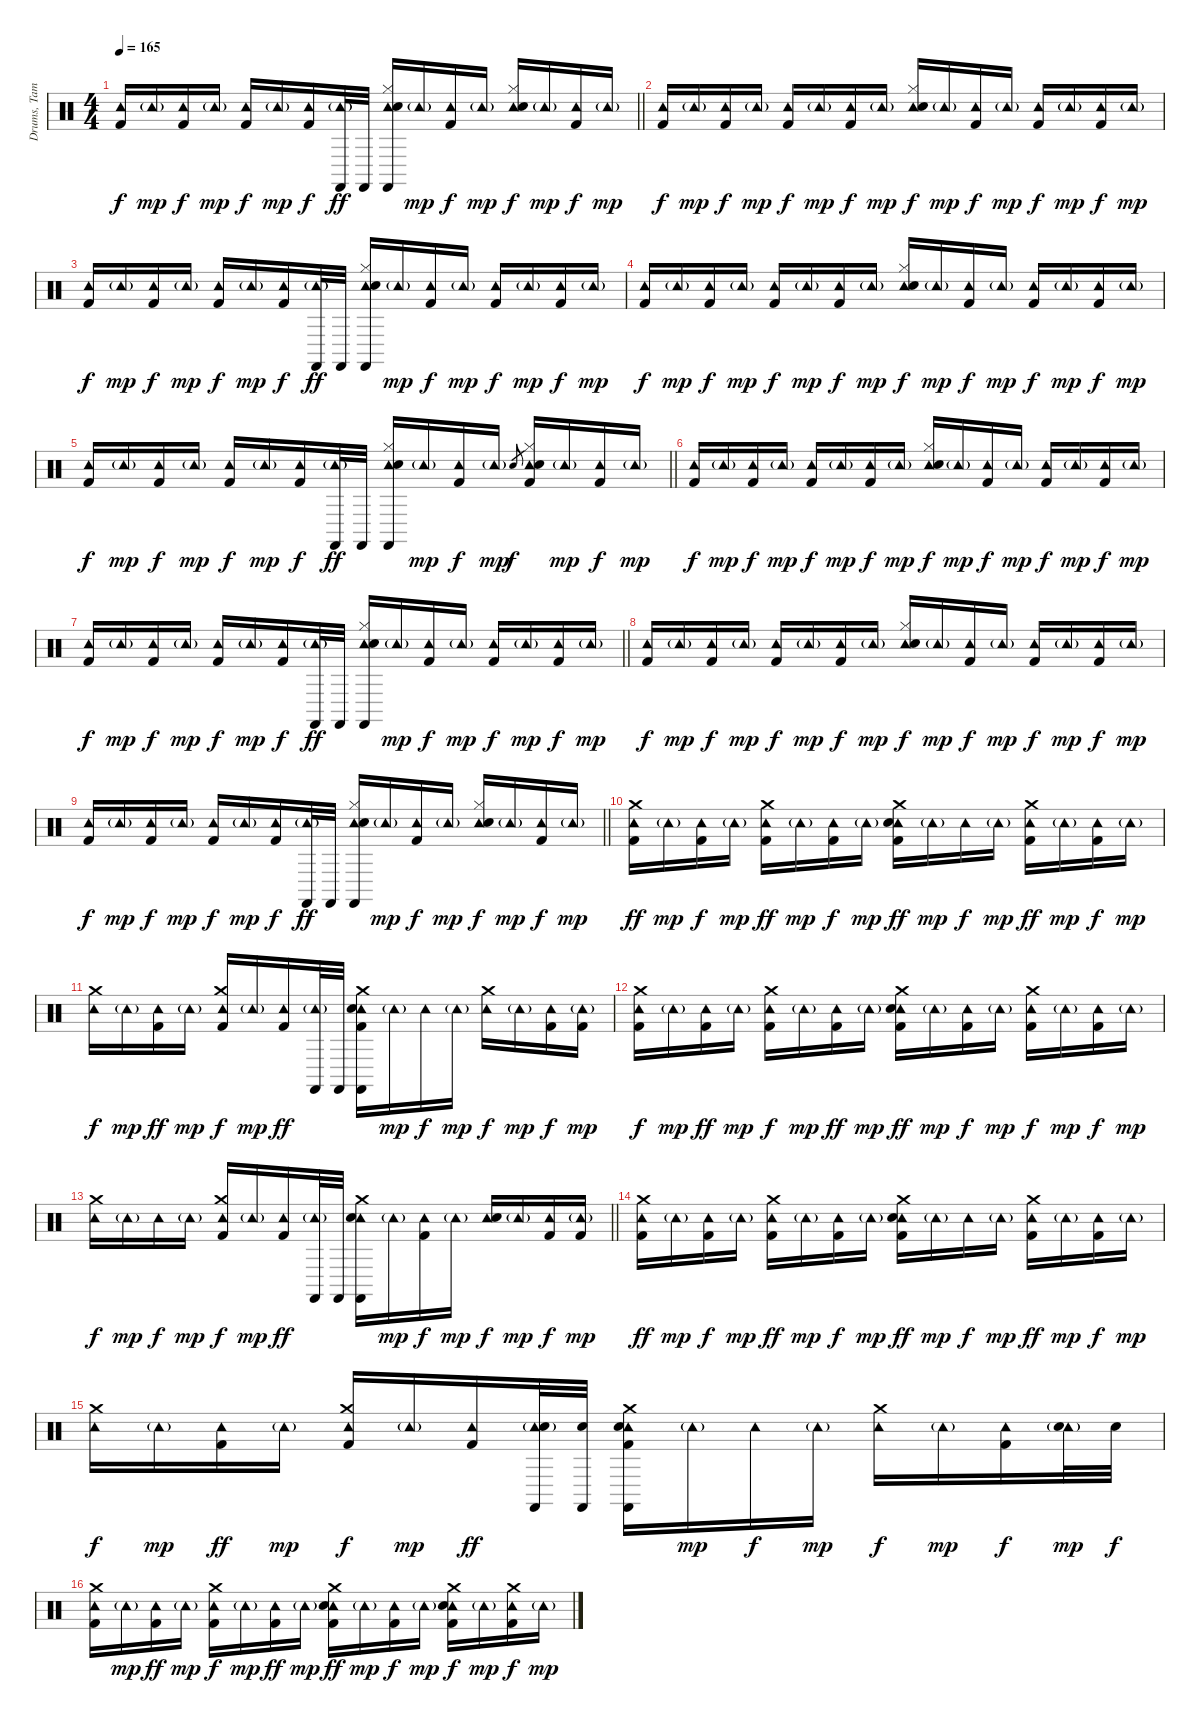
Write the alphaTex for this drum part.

\track ("Drums, Tambourine, Castinets" "Drums, Tam") {instrument percussion}
\staff {score}
\articulation defaults
\ts (4 4)
\tempo 165
\clef neutral
\barLineRight lightlight
\ks c
("Tambourine (hit)" "Kick (hit) 2").16{dy f} "Tambourine (hit)"{g}.16{dy mp} ("Tambourine (hit)" "Kick (hit) 2").16{dy f} "Tambourine (hit)"{g}.16{dy mp} ("Tambourine (hit)" "Kick (hit) 2").16{dy f} "Tambourine (hit)"{g}.16{dy mp} ("Tambourine (hit)" "Kick (hit) 2").16{dy f} ("Tambourine (hit)"{g} "Castanets (hit)").32{dy ff} "Castanets (hit)".32 ("Tambourine (hit)" "Hi-Hat (closed)" "Snare (hit) 2" "Castanets (hit)").16 "Tambourine (hit)"{g}.16{dy mp} ("Tambourine (hit)" "Kick (hit) 2").16{dy f} "Tambourine (hit)"{g}.16{dy mp} ("Tambourine (hit)" "Hi-Hat (closed)" "Snare (hit) 2").16{dy f} "Tambourine (hit)"{g}.16{dy mp} ("Tambourine (hit)" "Kick (hit) 2").16{dy f} "Tambourine (hit)"{g}.16{dy mp} |
("Tambourine (hit)" "Kick (hit) 2").16{dy f} "Tambourine (hit)"{g}.16{dy mp} ("Tambourine (hit)" "Kick (hit) 2").16{dy f} "Tambourine (hit)"{g}.16{dy mp} ("Tambourine (hit)" "Kick (hit) 2").16{dy f} "Tambourine (hit)"{g}.16{dy mp} ("Tambourine (hit)" "Kick (hit) 2").16{dy f} "Tambourine (hit)"{g}.16{dy mp} ("Tambourine (hit)" "Hi-Hat (closed)" "Snare (hit) 2").16{dy f} "Tambourine (hit)"{g}.16{dy mp} ("Tambourine (hit)" "Kick (hit) 2").16{dy f} "Tambourine (hit)"{g}.16{dy mp} ("Tambourine (hit)" "Kick (hit) 2").16{dy f} "Tambourine (hit)"{g}.16{dy mp} ("Tambourine (hit)" "Kick (hit) 2").16{dy f} "Tambourine (hit)"{g}.16{dy mp} |
("Tambourine (hit)" "Kick (hit) 2").16{dy f} "Tambourine (hit)"{g}.16{dy mp} ("Tambourine (hit)" "Kick (hit) 2").16{dy f} "Tambourine (hit)"{g}.16{dy mp} ("Tambourine (hit)" "Kick (hit) 2").16{dy f} "Tambourine (hit)"{g}.16{dy mp} ("Tambourine (hit)" "Kick (hit) 2").16{dy f} ("Tambourine (hit)"{g} "Castanets (hit)").32{dy ff} "Castanets (hit)".32 ("Tambourine (hit)" "Hi-Hat (closed)" "Snare (hit) 2" "Castanets (hit)").16 "Tambourine (hit)"{g}.16{dy mp} ("Tambourine (hit)" "Kick (hit) 2").16{dy f} "Tambourine (hit)"{g}.16{dy mp} ("Tambourine (hit)" "Kick (hit) 2").16{dy f} "Tambourine (hit)"{g}.16{dy mp} ("Tambourine (hit)" "Kick (hit) 2").16{dy f} "Tambourine (hit)"{g}.16{dy mp} |
("Tambourine (hit)" "Kick (hit) 2").16{dy f} "Tambourine (hit)"{g}.16{dy mp} ("Tambourine (hit)" "Kick (hit) 2").16{dy f} "Tambourine (hit)"{g}.16{dy mp} ("Tambourine (hit)" "Kick (hit) 2").16{dy f} "Tambourine (hit)"{g}.16{dy mp} ("Tambourine (hit)" "Kick (hit) 2").16{dy f} "Tambourine (hit)"{g}.16{dy mp} ("Tambourine (hit)" "Hi-Hat (closed)" "Snare (hit) 2").16{dy f} "Tambourine (hit)"{g}.16{dy mp} ("Tambourine (hit)" "Kick (hit) 2").16{dy f} "Tambourine (hit)"{g}.16{dy mp} ("Tambourine (hit)" "Kick (hit) 2").16{dy f} "Tambourine (hit)"{g}.16{dy mp} ("Tambourine (hit)" "Kick (hit) 2").16{dy f} "Tambourine (hit)"{g}.16{dy mp} |
\barLineRight lightlight
("Tambourine (hit)" "Kick (hit) 2").16{dy f} "Tambourine (hit)"{g}.16{dy mp} ("Tambourine (hit)" "Kick (hit) 2").16{dy f} "Tambourine (hit)"{g}.16{dy mp} ("Tambourine (hit)" "Kick (hit) 2").16{dy f} "Tambourine (hit)"{g}.16{dy mp} ("Tambourine (hit)" "Kick (hit) 2").16{dy f} ("Tambourine (hit)"{g} "Castanets (hit)").32{dy ff} "Castanets (hit)".32 ("Tambourine (hit)" "Hi-Hat (closed)" "Snare (hit) 2" "Castanets (hit)").16 "Tambourine (hit)"{g}.16{dy mp} ("Tambourine (hit)" "Kick (hit) 2").16{dy f} "Tambourine (hit)"{g}.16{dy mp} "Snare (hit) 2".8{gr dy f} ("Tambourine (hit)" "Hi-Hat (closed)" "Snare (hit) 2" "Kick (hit) 2").16 "Tambourine (hit)"{g}.16{dy mp} ("Tambourine (hit)" "Kick (hit) 2").16{dy f} "Tambourine (hit)"{g}.16{dy mp} |
("Tambourine (hit)" "Kick (hit) 2").16{dy f} "Tambourine (hit)"{g}.16{dy mp} ("Tambourine (hit)" "Kick (hit) 2").16{dy f} "Tambourine (hit)"{g}.16{dy mp} ("Tambourine (hit)" "Kick (hit) 2").16{dy f} "Tambourine (hit)"{g}.16{dy mp} ("Tambourine (hit)" "Kick (hit) 2").16{dy f} "Tambourine (hit)"{g}.16{dy mp} ("Tambourine (hit)" "Hi-Hat (closed)" "Snare (hit) 2").16{dy f} "Tambourine (hit)"{g}.16{dy mp} ("Tambourine (hit)" "Kick (hit) 2").16{dy f} "Tambourine (hit)"{g}.16{dy mp} ("Tambourine (hit)" "Kick (hit) 2").16{dy f} "Tambourine (hit)"{g}.16{dy mp} ("Tambourine (hit)" "Kick (hit) 2").16{dy f} "Tambourine (hit)"{g}.16{dy mp} |
\barLineRight lightlight
("Tambourine (hit)" "Kick (hit) 2").16{dy f} "Tambourine (hit)"{g}.16{dy mp} ("Tambourine (hit)" "Kick (hit) 2").16{dy f} "Tambourine (hit)"{g}.16{dy mp} ("Tambourine (hit)" "Kick (hit) 2").16{dy f} "Tambourine (hit)"{g}.16{dy mp} ("Tambourine (hit)" "Kick (hit) 2").16{dy f} ("Tambourine (hit)"{g} "Castanets (hit)").32{dy ff} "Castanets (hit)".32 ("Tambourine (hit)" "Hi-Hat (closed)" "Snare (hit) 2" "Castanets (hit)").16 "Tambourine (hit)"{g}.16{dy mp} ("Tambourine (hit)" "Kick (hit) 2").16{dy f} "Tambourine (hit)"{g}.16{dy mp} ("Tambourine (hit)" "Kick (hit) 2").16{dy f} "Tambourine (hit)"{g}.16{dy mp} ("Tambourine (hit)" "Kick (hit) 2").16{dy f} "Tambourine (hit)"{g}.16{dy mp} |
("Tambourine (hit)" "Kick (hit) 2").16{dy f} "Tambourine (hit)"{g}.16{dy mp} ("Tambourine (hit)" "Kick (hit) 2").16{dy f} "Tambourine (hit)"{g}.16{dy mp} ("Tambourine (hit)" "Kick (hit) 2").16{dy f} "Tambourine (hit)"{g}.16{dy mp} ("Tambourine (hit)" "Kick (hit) 2").16{dy f} "Tambourine (hit)"{g}.16{dy mp} ("Tambourine (hit)" "Hi-Hat (closed)" "Snare (hit) 2").16{dy f} "Tambourine (hit)"{g}.16{dy mp} ("Tambourine (hit)" "Kick (hit) 2").16{dy f} "Tambourine (hit)"{g}.16{dy mp} ("Tambourine (hit)" "Kick (hit) 2").16{dy f} "Tambourine (hit)"{g}.16{dy mp} ("Tambourine (hit)" "Kick (hit) 2").16{dy f} "Tambourine (hit)"{g}.16{dy mp} |
\barLineRight lightlight
("Tambourine (hit)" "Kick (hit) 2").16{dy f} "Tambourine (hit)"{g}.16{dy mp} ("Tambourine (hit)" "Kick (hit) 2").16{dy f} "Tambourine (hit)"{g}.16{dy mp} ("Tambourine (hit)" "Kick (hit) 2").16{dy f} "Tambourine (hit)"{g}.16{dy mp} ("Tambourine (hit)" "Kick (hit) 2").16{dy f} ("Tambourine (hit)"{g} "Castanets (hit)").32{dy ff} "Castanets (hit)".32 ("Tambourine (hit)" "Hi-Hat (closed)" "Snare (hit) 2" "Castanets (hit)").16 "Tambourine (hit)"{g}.16{dy mp} ("Tambourine (hit)" "Kick (hit) 2").16{dy f} "Tambourine (hit)"{g}.16{dy mp} ("Tambourine (hit)" "Hi-Hat (closed)" "Snare (hit) 2").16{dy f} "Tambourine (hit)"{g}.16{dy mp} ("Tambourine (hit)" "Kick (hit) 2").16{dy f} "Tambourine (hit)"{g}.16{dy mp} |
("Crash medium (hit)" "Tambourine (hit)" "Kick (hit) 2").16{dy ff} "Tambourine (hit)"{g}.16{dy mp} ("Tambourine (hit)" "Kick (hit) 2").16{dy f} "Tambourine (hit)"{g}.16{dy mp} ("Crash medium (hit)" "Tambourine (hit)" "Kick (hit) 2").16{dy ff} "Tambourine (hit)"{g}.16{dy mp} ("Tambourine (hit)" "Kick (hit) 2").16{dy f} "Tambourine (hit)"{g}.16{dy mp} ("Crash medium (hit)" "Tambourine (hit)" "Snare (hit) 2" "Kick (hit) 2").16{dy ff} "Tambourine (hit)"{g}.16{dy mp} "Tambourine (hit)".16{dy f} "Tambourine (hit)"{g}.16{dy mp} ("Crash medium (hit)" "Tambourine (hit)" "Kick (hit) 2").16{dy ff} "Tambourine (hit)"{g}.16{dy mp} ("Tambourine (hit)" "Kick (hit) 2").16{dy f} "Tambourine (hit)"{g}.16{dy mp} |
("Crash medium (hit)" "Tambourine (hit)").16{dy f} "Tambourine (hit)"{g}.16{dy mp} ("Tambourine (hit)" "Kick (hit) 2").16{dy ff} "Tambourine (hit)"{g}.16{dy mp} ("Crash medium (hit)" "Tambourine (hit)" "Kick (hit) 2").16{dy f} "Tambourine (hit)"{g}.16{dy mp} ("Tambourine (hit)" "Kick (hit) 2").16{dy ff} ("Tambourine (hit)"{g} "Castanets (hit)").32 "Castanets (hit)".32 ("Crash medium (hit)" "Tambourine (hit)" "Snare (hit) 2" "Castanets (hit)" "Kick (hit) 2").16 "Tambourine (hit)"{g}.16{dy mp} "Tambourine (hit)".16{dy f} "Tambourine (hit)"{g}.16{dy mp} ("Crash medium (hit)" "Tambourine (hit)").16{dy f} "Tambourine (hit)"{g}.16{dy mp} ("Tambourine (hit)" "Kick (hit) 2").16{dy f} ("Tambourine (hit)"{g} "Kick (hit) 2").16{dy mp} |
("Crash medium (hit)" "Tambourine (hit)" "Kick (hit) 2").16{dy f} "Tambourine (hit)"{g}.16{dy mp} ("Tambourine (hit)" "Kick (hit) 2").16{dy ff} "Tambourine (hit)"{g}.16{dy mp} ("Crash medium (hit)" "Tambourine (hit)" "Kick (hit) 2").16{dy f} "Tambourine (hit)"{g}.16{dy mp} ("Tambourine (hit)" "Kick (hit) 2").16{dy ff} "Tambourine (hit)"{g}.16{dy mp} ("Crash medium (hit)" "Tambourine (hit)" "Snare (hit) 2" "Kick (hit) 2").16{dy ff} "Tambourine (hit)"{g}.16{dy mp} ("Tambourine (hit)" "Kick (hit) 2").16{dy f} "Tambourine (hit)"{g}.16{dy mp} ("Crash medium (hit)" "Tambourine (hit)" "Kick (hit) 2").16{dy f} "Tambourine (hit)"{g}.16{dy mp} ("Tambourine (hit)" "Kick (hit) 2").16{dy f} "Tambourine (hit)"{g}.16{dy mp} |
\barLineRight lightlight
("Crash medium (hit)" "Tambourine (hit)").16{dy f} "Tambourine (hit)"{g}.16{dy mp} "Tambourine (hit)".16{dy f} "Tambourine (hit)"{g}.16{dy mp} ("Crash medium (hit)" "Tambourine (hit)" "Kick (hit) 2").16{dy f} "Tambourine (hit)"{g}.16{dy mp} ("Tambourine (hit)" "Kick (hit) 2").16{dy ff} ("Tambourine (hit)"{g} "Castanets (hit)").32 "Castanets (hit)".32 ("Crash medium (hit)" "Tambourine (hit)" "Snare (hit) 2" "Castanets (hit)").16 "Tambourine (hit)"{g}.16{dy mp} ("Tambourine (hit)" "Kick (hit) 2").16{dy f} "Tambourine (hit)"{g}.16{dy mp} ("Tambourine (hit)" "Snare (hit) 2").16{dy f} "Tambourine (hit)"{g}.16{dy mp} ("Tambourine (hit)" "Kick (hit) 2").16{dy f} ("Tambourine (hit)"{g} "Kick (hit) 2").16{dy mp} |
("Crash medium (hit)" "Tambourine (hit)" "Kick (hit) 2").16{dy ff} "Tambourine (hit)"{g}.16{dy mp} ("Tambourine (hit)" "Kick (hit) 2").16{dy f} "Tambourine (hit)"{g}.16{dy mp} ("Crash medium (hit)" "Tambourine (hit)" "Kick (hit) 2").16{dy ff} "Tambourine (hit)"{g}.16{dy mp} ("Tambourine (hit)" "Kick (hit) 2").16{dy f} "Tambourine (hit)"{g}.16{dy mp} ("Crash medium (hit)" "Tambourine (hit)" "Snare (hit) 2" "Kick (hit) 2").16{dy ff} "Tambourine (hit)"{g}.16{dy mp} "Tambourine (hit)".16{dy f} "Tambourine (hit)"{g}.16{dy mp} ("Crash medium (hit)" "Tambourine (hit)" "Kick (hit) 2").16{dy ff} "Tambourine (hit)"{g}.16{dy mp} ("Tambourine (hit)" "Kick (hit) 2").16{dy f} "Tambourine (hit)"{g}.16{dy mp} |
("Crash medium (hit)" "Tambourine (hit)").16{dy f} "Tambourine (hit)"{g}.16{dy mp} ("Tambourine (hit)" "Kick (hit) 2").16{dy ff} "Tambourine (hit)"{g}.16{dy mp} ("Crash medium (hit)" "Tambourine (hit)" "Kick (hit) 2").16{dy f} "Tambourine (hit)"{g}.16{dy mp} ("Tambourine (hit)" "Kick (hit) 2").16{dy ff} ("Tambourine (hit)"{g} "Snare (hit) 2" "Castanets (hit)").32 ("Snare (hit) 2" "Castanets (hit)").32 ("Crash medium (hit)" "Tambourine (hit)" "Snare (hit) 2" "Castanets (hit)" "Kick (hit) 2").16 "Tambourine (hit)"{g}.16{dy mp} "Tambourine (hit)".16{dy f} "Tambourine (hit)"{g}.16{dy mp} ("Crash medium (hit)" "Tambourine (hit)").16{dy f} "Tambourine (hit)"{g}.16{dy mp} ("Tambourine (hit)" "Kick (hit) 2").16{dy f} ("Tambourine (hit)"{g} "Snare (hit) 2").32{dy mp} "Snare (hit) 2".32{dy f} |
("Crash medium (hit)" "Tambourine (hit)" "Kick (hit) 2").16 "Tambourine (hit)"{g}.16{dy mp} ("Tambourine (hit)" "Kick (hit) 2").16{dy ff} "Tambourine (hit)"{g}.16{dy mp} ("Crash medium (hit)" "Tambourine (hit)" "Kick (hit) 2").16{dy f} "Tambourine (hit)"{g}.16{dy mp} ("Tambourine (hit)" "Kick (hit) 2").16{dy ff} "Tambourine (hit)"{g}.16{dy mp} ("Crash medium (hit)" "Tambourine (hit)" "Snare (hit) 2" "Kick (hit) 2").16{dy ff} "Tambourine (hit)"{g}.16{dy mp} ("Tambourine (hit)" "Kick (hit) 2").16{dy f} "Tambourine (hit)"{g}.16{dy mp} ("Crash medium (hit)" "Tambourine (hit)" "Snare (hit) 2" "Kick (hit) 2").16{dy f} "Tambourine (hit)"{g}.16{dy mp} ("Crash medium (hit)" "Tambourine (hit)" "Kick (hit) 2").16{dy f} "Tambourine (hit)"{g}.16{dy mp}
